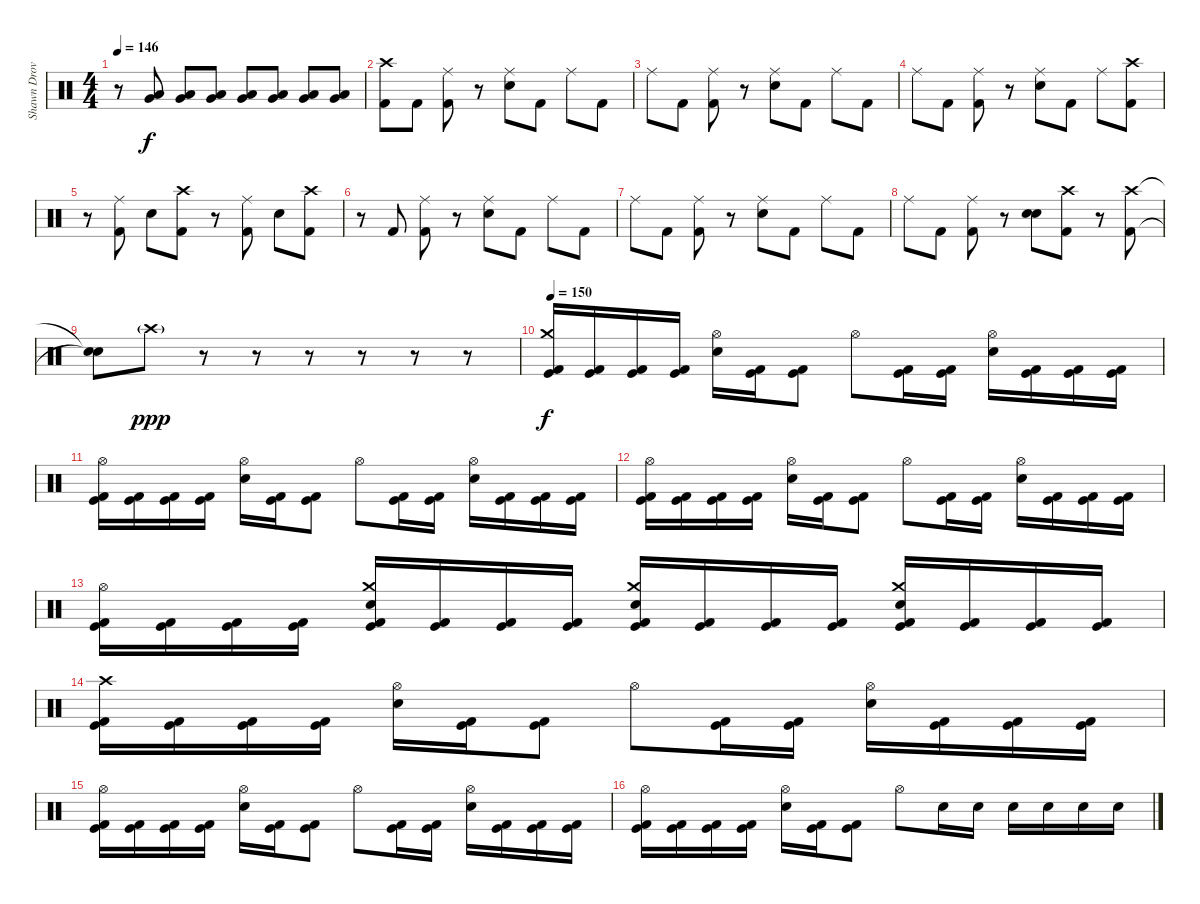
\track ("Shawn Drover" "Shawn Drov") {instrument percussion}
\staff {score}
\articulation defaults
\ts (4 4)
\tempo 146
\clef neutral
\ks c
r.8{dy f} ("Low Tom (hit)" "Very Low Tom (hit)").8 ("Low Tom (hit)" "Very Low Tom (hit)").8 ("Low Tom (hit)" "Very Low Tom (hit)").8 ("Low Tom (hit)" "Very Low Tom (hit)").8 ("Low Tom (hit)" "Very Low Tom (hit)").8 ("Low Tom (hit)" "Very Low Tom (hit)").8 ("Low Tom (hit)" "Very Low Tom (hit)").8 |
("Crash high (hit)" "Kick (hit) 2").8 "Kick (hit) 2".8 ("Ride (middle)" "Kick (hit) 2").8 r.8 ("Ride (middle)" "Snare (hit) 2").8 "Kick (hit) 2".8 "Ride (middle)".8 "Kick (hit) 2".8 |
"Ride (middle)".8 "Kick (hit) 2".8 ("Ride (middle)" "Kick (hit) 2").8 r.8 ("Ride (middle)" "Snare (hit) 2").8 "Kick (hit) 2".8 "Ride (middle)".8 "Kick (hit) 2".8 |
"Ride (middle)".8 "Kick (hit) 2".8 ("Ride (middle)" "Kick (hit) 2").8 r.8 ("Ride (middle)" "Snare (hit) 2").8 "Kick (hit) 2".8 "Ride (middle)".8 ("Crash high (hit)" "Kick (hit) 2").8 |
r.8 ("Ride (middle)" "Kick (hit) 2").8 "Snare (hit) 2".8 ("Crash high (hit)" "Kick (hit) 2").8 r.8 ("Ride (middle)" "Kick (hit) 2").8 "Snare (hit) 2".8 ("Crash high (hit)" "Kick (hit) 2").8 |
r.8 "Kick (hit) 2".8 ("Ride (middle)" "Kick (hit) 2").8 r.8 ("Ride (middle)" "Snare (hit) 2").8 "Kick (hit) 2".8 "Ride (middle)".8 "Kick (hit) 2".8 |
"Ride (middle)".8 "Kick (hit) 2".8 ("Ride (middle)" "Kick (hit) 2").8 r.8 ("Ride (middle)" "Snare (hit) 2").8 "Kick (hit) 2".8 "Ride (middle)".8 "Kick (hit) 2".8 |
"Ride (middle)".8 "Kick (hit) 2".8 ("Ride (middle)" "Kick (hit) 2").8 r.8 ("Snare (hit) 2" "Snare (hit) 2").8{bd 60} ("Crash high (hit)" "Kick (hit) 2").8 r.8 ("Crash high (hit)" "Kick (hit) 2").8 |
("Snare (hit)"{t} "Snare (hit)"{t}).8 "Crash high (hit)"{g}.8{dy ppp} r.8 r.8 r.8 r.8 r.8 r.8 |
\tempo 150
("Crash medium (hit)" "Kick (hit)" "Kick (hit) 2").16{dy f} ("Kick (hit)" "Kick (hit) 2").16 ("Kick (hit)" "Kick (hit) 2").16 ("Kick (hit)" "Kick (hit) 2").16 ("Hi-Hat (open)" "Snare (hit) 2").16 ("Kick (hit)" "Kick (hit) 2").16 ("Kick (hit)" "Kick (hit) 2").8 "Hi-Hat (open)".8 ("Kick (hit)" "Kick (hit) 2").16 ("Kick (hit)" "Kick (hit) 2").16 ("Hi-Hat (open)" "Snare (hit) 2").16 ("Kick (hit)" "Kick (hit) 2").16 ("Kick (hit)" "Kick (hit) 2").16 ("Kick (hit)" "Kick (hit) 2").16 |
("Hi-Hat (open)" "Kick (hit)" "Kick (hit) 2").16 ("Kick (hit)" "Kick (hit) 2").16 ("Kick (hit)" "Kick (hit) 2").16 ("Kick (hit)" "Kick (hit) 2").16 ("Hi-Hat (open)" "Snare (hit) 2").16 ("Kick (hit)" "Kick (hit) 2").16 ("Kick (hit)" "Kick (hit) 2").8 "Hi-Hat (open)".8 ("Kick (hit)" "Kick (hit) 2").16 ("Kick (hit)" "Kick (hit) 2").16 ("Hi-Hat (open)" "Snare (hit) 2").16 ("Kick (hit)" "Kick (hit) 2").16 ("Kick (hit)" "Kick (hit) 2").16 ("Kick (hit)" "Kick (hit) 2").16 |
("Hi-Hat (open)" "Kick (hit)" "Kick (hit) 2").16 ("Kick (hit)" "Kick (hit) 2").16 ("Kick (hit)" "Kick (hit) 2").16 ("Kick (hit)" "Kick (hit) 2").16 ("Hi-Hat (open)" "Snare (hit) 2").16 ("Kick (hit)" "Kick (hit) 2").16 ("Kick (hit)" "Kick (hit) 2").8 "Hi-Hat (open)".8 ("Kick (hit)" "Kick (hit) 2").16 ("Kick (hit)" "Kick (hit) 2").16 ("Hi-Hat (open)" "Snare (hit) 2").16 ("Kick (hit)" "Kick (hit) 2").16 ("Kick (hit)" "Kick (hit) 2").16 ("Kick (hit)" "Kick (hit) 2").16 |
("Hi-Hat (open)" "Kick (hit)" "Kick (hit) 2").16 ("Kick (hit)" "Kick (hit) 2").16 ("Kick (hit)" "Kick (hit) 2").16 ("Kick (hit)" "Kick (hit) 2").16 ("Crash medium (hit)" "Snare (hit) 2" "Kick (hit)" "Kick (hit) 2").16 ("Kick (hit)" "Kick (hit) 2").16 ("Kick (hit)" "Kick (hit) 2").16 ("Kick (hit)" "Kick (hit) 2").16 ("Crash medium (hit)" "Snare (hit) 2" "Kick (hit)" "Kick (hit) 2").16 ("Kick (hit)" "Kick (hit) 2").16 ("Kick (hit)" "Kick (hit) 2").16 ("Kick (hit)" "Kick (hit) 2").16 ("Crash medium (hit)" "Snare (hit) 2" "Kick (hit)" "Kick (hit) 2").16 ("Kick (hit)" "Kick (hit) 2").16 ("Kick (hit)" "Kick (hit) 2").16 ("Kick (hit)" "Kick (hit) 2").16 |
("Crash high (hit)" "Kick (hit)" "Kick (hit) 2").16 ("Kick (hit)" "Kick (hit) 2").16 ("Kick (hit)" "Kick (hit) 2").16 ("Kick (hit)" "Kick (hit) 2").16 ("Hi-Hat (open)" "Snare (hit) 2").16 ("Kick (hit)" "Kick (hit) 2").16 ("Kick (hit)" "Kick (hit) 2").8 "Hi-Hat (open)".8 ("Kick (hit)" "Kick (hit) 2").16 ("Kick (hit)" "Kick (hit) 2").16 ("Hi-Hat (open)" "Snare (hit) 2").16 ("Kick (hit)" "Kick (hit) 2").16 ("Kick (hit)" "Kick (hit) 2").16 ("Kick (hit)" "Kick (hit) 2").16 |
("Hi-Hat (open)" "Kick (hit)" "Kick (hit) 2").16 ("Kick (hit)" "Kick (hit) 2").16 ("Kick (hit)" "Kick (hit) 2").16 ("Kick (hit)" "Kick (hit) 2").16 ("Hi-Hat (open)" "Snare (hit) 2").16 ("Kick (hit)" "Kick (hit) 2").16 ("Kick (hit)" "Kick (hit) 2").8 "Hi-Hat (open)".8 ("Kick (hit)" "Kick (hit) 2").16 ("Kick (hit)" "Kick (hit) 2").16 ("Hi-Hat (open)" "Snare (hit) 2").16 ("Kick (hit)" "Kick (hit) 2").16 ("Kick (hit)" "Kick (hit) 2").16 ("Kick (hit)" "Kick (hit) 2").16 |
("Hi-Hat (open)" "Kick (hit)" "Kick (hit) 2").16 ("Kick (hit)" "Kick (hit) 2").16 ("Kick (hit)" "Kick (hit) 2").16 ("Kick (hit)" "Kick (hit) 2").16 ("Hi-Hat (open)" "Snare (hit) 2").16 ("Kick (hit)" "Kick (hit) 2").16 ("Kick (hit)" "Kick (hit) 2").8 "Hi-Hat (open)".8 "Snare (hit) 2".16 "Snare (hit) 2".16 "Snare (hit) 2".16 "Snare (hit) 2".16 "Snare (hit) 2".16 "Snare (hit) 2".16
